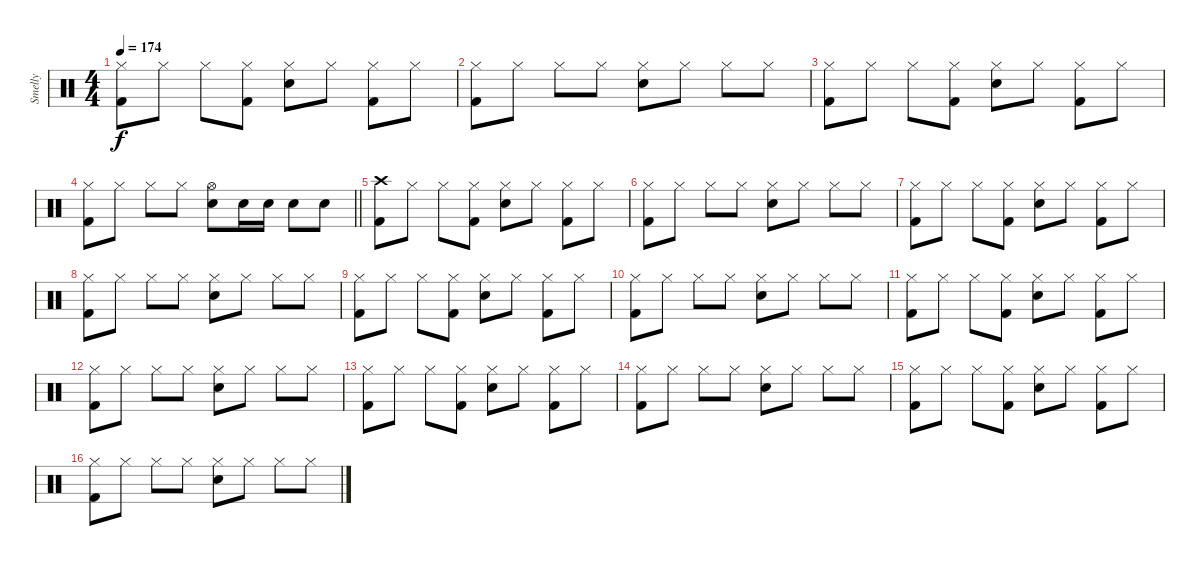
\track ("Smelly" "Smelly") {instrument percussion}
\staff {score}
\articulation defaults
\ts (4 4)
\tempo 174
\clef neutral
\ks c
("Hi-Hat (closed)" "Kick (hit) 2").8{dy f} "Hi-Hat (closed)".8 "Hi-Hat (closed)".8 ("Hi-Hat (closed)" "Kick (hit) 2").8 ("Hi-Hat (closed)" "Electric Snare (hit)").8 "Hi-Hat (closed)".8 ("Hi-Hat (closed)" "Kick (hit) 2").8 "Hi-Hat (closed)".8 |
("Hi-Hat (closed)" "Kick (hit) 2").8 "Hi-Hat (closed)".8 "Hi-Hat (closed)".8 "Hi-Hat (closed)".8 ("Hi-Hat (closed)" "Electric Snare (hit)").8 "Hi-Hat (closed)".8 "Hi-Hat (closed)".8 "Hi-Hat (closed)".8 |
("Hi-Hat (closed)" "Kick (hit) 2").8 "Hi-Hat (closed)".8 "Hi-Hat (closed)".8 ("Hi-Hat (closed)" "Kick (hit) 2").8 ("Hi-Hat (closed)" "Electric Snare (hit)").8 "Hi-Hat (closed)".8 ("Hi-Hat (closed)" "Kick (hit) 2").8 "Hi-Hat (closed)".8 |
\barLineRight lightlight
("Hi-Hat (closed)" "Kick (hit) 2").8 "Hi-Hat (closed)".8 "Hi-Hat (closed)".8 "Hi-Hat (closed)".8 ("Hi-Hat (open)" "Electric Snare (hit)").8 "Electric Snare (hit)".16 "Electric Snare (hit)".16 "Electric Snare (hit)".8 "Electric Snare (hit)".8 |
\section ("" "")
("Crash high (hit)" "Kick (hit) 2").8 "Hi-Hat (closed)".8 "Hi-Hat (closed)".8 ("Hi-Hat (closed)" "Kick (hit) 2").8 ("Hi-Hat (closed)" "Electric Snare (hit)").8 "Hi-Hat (closed)".8 ("Hi-Hat (closed)" "Kick (hit) 2").8 "Hi-Hat (closed)".8 |
("Hi-Hat (closed)" "Kick (hit) 2").8 "Hi-Hat (closed)".8 "Hi-Hat (closed)".8 "Hi-Hat (closed)".8 ("Hi-Hat (closed)" "Electric Snare (hit)").8 "Hi-Hat (closed)".8 "Hi-Hat (closed)".8 "Hi-Hat (closed)".8 |
("Hi-Hat (closed)" "Kick (hit) 2").8 "Hi-Hat (closed)".8 "Hi-Hat (closed)".8 ("Hi-Hat (closed)" "Kick (hit) 2").8 ("Hi-Hat (closed)" "Electric Snare (hit)").8 "Hi-Hat (closed)".8 ("Hi-Hat (closed)" "Kick (hit) 2").8 "Hi-Hat (closed)".8 |
("Hi-Hat (closed)" "Kick (hit) 2").8 "Hi-Hat (closed)".8 "Hi-Hat (closed)".8 "Hi-Hat (closed)".8 ("Hi-Hat (closed)" "Electric Snare (hit)").8 "Hi-Hat (closed)".8 "Hi-Hat (closed)".8 "Hi-Hat (closed)".8 |
("Hi-Hat (closed)" "Kick (hit) 2").8 "Hi-Hat (closed)".8 "Hi-Hat (closed)".8 ("Hi-Hat (closed)" "Kick (hit) 2").8 ("Hi-Hat (closed)" "Electric Snare (hit)").8 "Hi-Hat (closed)".8 ("Hi-Hat (closed)" "Kick (hit) 2").8 "Hi-Hat (closed)".8 |
("Hi-Hat (closed)" "Kick (hit) 2").8 "Hi-Hat (closed)".8 "Hi-Hat (closed)".8 "Hi-Hat (closed)".8 ("Hi-Hat (closed)" "Electric Snare (hit)").8 "Hi-Hat (closed)".8 "Hi-Hat (closed)".8 "Hi-Hat (closed)".8 |
("Hi-Hat (closed)" "Kick (hit) 2").8 "Hi-Hat (closed)".8 "Hi-Hat (closed)".8 ("Hi-Hat (closed)" "Kick (hit) 2").8 ("Hi-Hat (closed)" "Electric Snare (hit)").8 "Hi-Hat (closed)".8 ("Hi-Hat (closed)" "Kick (hit) 2").8 "Hi-Hat (closed)".8 |
("Hi-Hat (closed)" "Kick (hit) 2").8 "Hi-Hat (closed)".8 "Hi-Hat (closed)".8 "Hi-Hat (closed)".8 ("Hi-Hat (closed)" "Electric Snare (hit)").8 "Hi-Hat (closed)".8 "Hi-Hat (closed)".8 "Hi-Hat (closed)".8 |
("Hi-Hat (closed)" "Kick (hit) 2").8 "Hi-Hat (closed)".8 "Hi-Hat (closed)".8 ("Hi-Hat (closed)" "Kick (hit) 2").8 ("Hi-Hat (closed)" "Electric Snare (hit)").8 "Hi-Hat (closed)".8 ("Hi-Hat (closed)" "Kick (hit) 2").8 "Hi-Hat (closed)".8 |
("Hi-Hat (closed)" "Kick (hit) 2").8 "Hi-Hat (closed)".8 "Hi-Hat (closed)".8 "Hi-Hat (closed)".8 ("Hi-Hat (closed)" "Electric Snare (hit)").8 "Hi-Hat (closed)".8 "Hi-Hat (closed)".8 "Hi-Hat (closed)".8 |
("Hi-Hat (closed)" "Kick (hit) 2").8 "Hi-Hat (closed)".8 "Hi-Hat (closed)".8 ("Hi-Hat (closed)" "Kick (hit) 2").8 ("Hi-Hat (closed)" "Electric Snare (hit)").8 "Hi-Hat (closed)".8 ("Hi-Hat (closed)" "Kick (hit) 2").8 "Hi-Hat (closed)".8 |
("Hi-Hat (closed)" "Kick (hit) 2").8 "Hi-Hat (closed)".8 "Hi-Hat (closed)".8 "Hi-Hat (closed)".8 ("Hi-Hat (closed)" "Electric Snare (hit)").8 "Hi-Hat (closed)".8 "Hi-Hat (closed)".8 "Hi-Hat (closed)".8
